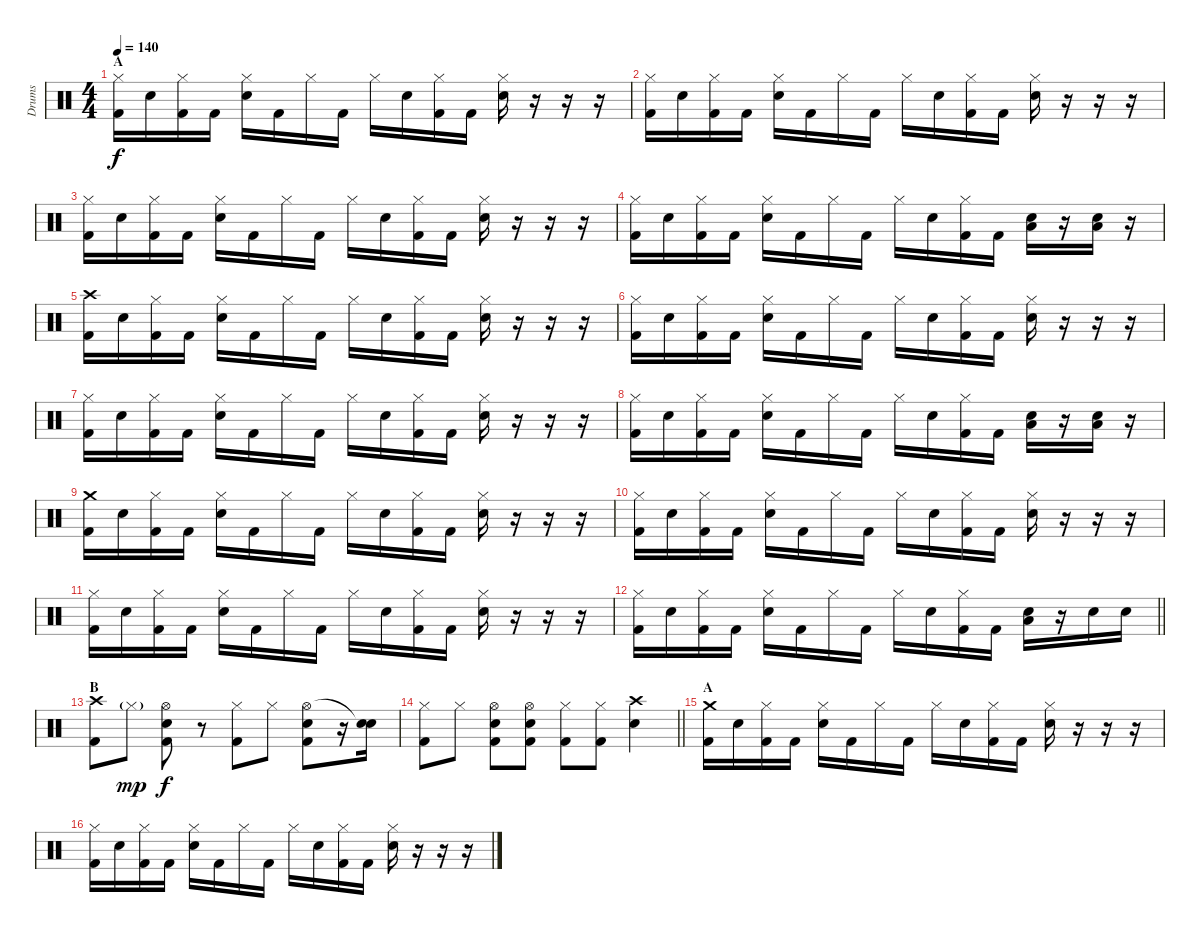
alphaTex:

\track ("Drums" "Drums") {instrument percussion}
\staff {score}
\articulation defaults
\ts (4 4)
\section ("" "A")
\tempo 140
\clef neutral
\ks c
("Hi-Hat (closed)" "Kick (hit) 2").16{dy f} "Snare (hit) 2".16 ("Hi-Hat (closed)" "Kick (hit) 2").16 "Kick (hit) 2".16 ("Hi-Hat (closed)" "Snare (hit) 2").16 "Kick (hit) 2".16 "Hi-Hat (closed)".16 "Kick (hit) 2".16 "Hi-Hat (closed)".16 "Snare (hit) 2".16 ("Hi-Hat (closed)" "Kick (hit) 2").16 "Kick (hit) 2".16 ("Hi-Hat (closed)" "Snare (hit) 2").16 r.16 r.16 r.16 |
("Hi-Hat (closed)" "Kick (hit) 2").16 "Snare (hit) 2".16 ("Hi-Hat (closed)" "Kick (hit) 2").16 "Kick (hit) 2".16 ("Hi-Hat (closed)" "Snare (hit) 2").16 "Kick (hit) 2".16 "Hi-Hat (closed)".16 "Kick (hit) 2".16 "Hi-Hat (closed)".16 "Snare (hit) 2".16 ("Hi-Hat (closed)" "Kick (hit) 2").16 "Kick (hit) 2".16 ("Hi-Hat (closed)" "Snare (hit) 2").16 r.16 r.16 r.16 |
("Hi-Hat (closed)" "Kick (hit) 2").16 "Snare (hit) 2".16 ("Hi-Hat (closed)" "Kick (hit) 2").16 "Kick (hit) 2".16 ("Hi-Hat (closed)" "Snare (hit) 2").16 "Kick (hit) 2".16 "Hi-Hat (closed)".16 "Kick (hit) 2".16 "Hi-Hat (closed)".16 "Snare (hit) 2".16 ("Hi-Hat (closed)" "Kick (hit) 2").16 "Kick (hit) 2".16 ("Hi-Hat (closed)" "Snare (hit) 2").16 r.16 r.16 r.16 |
("Hi-Hat (closed)" "Kick (hit) 2").16 "Snare (hit) 2".16 ("Hi-Hat (closed)" "Kick (hit) 2").16 "Kick (hit) 2".16 ("Hi-Hat (closed)" "Snare (hit) 2").16 "Kick (hit) 2".16 "Hi-Hat (closed)".16 "Kick (hit) 2".16 "Hi-Hat (closed)".16 "Snare (hit) 2".16 ("Hi-Hat (closed)" "Kick (hit) 2").16 "Kick (hit) 2".16 ("Low Tom (hit)" "Snare (hit) 2").16 r.16 ("Low Tom (hit)" "Snare (hit) 2").16 r.16 |
("Crash high (hit)" "Kick (hit) 2").16 "Snare (hit) 2".16 ("Hi-Hat (closed)" "Kick (hit) 2").16 "Kick (hit) 2".16 ("Hi-Hat (closed)" "Snare (hit) 2").16 "Kick (hit) 2".16 "Hi-Hat (closed)".16 "Kick (hit) 2".16 "Hi-Hat (closed)".16 "Snare (hit) 2".16 ("Hi-Hat (closed)" "Kick (hit) 2").16 "Kick (hit) 2".16 ("Hi-Hat (closed)" "Snare (hit) 2").16 r.16 r.16 r.16 |
("Hi-Hat (closed)" "Kick (hit) 2").16 "Snare (hit) 2".16 ("Hi-Hat (closed)" "Kick (hit) 2").16 "Kick (hit) 2".16 ("Hi-Hat (closed)" "Snare (hit) 2").16 "Kick (hit) 2".16 "Hi-Hat (closed)".16 "Kick (hit) 2".16 "Hi-Hat (closed)".16 "Snare (hit) 2".16 ("Hi-Hat (closed)" "Kick (hit) 2").16 "Kick (hit) 2".16 ("Hi-Hat (closed)" "Snare (hit) 2").16 r.16 r.16 r.16 |
("Hi-Hat (closed)" "Kick (hit) 2").16 "Snare (hit) 2".16 ("Hi-Hat (closed)" "Kick (hit) 2").16 "Kick (hit) 2".16 ("Hi-Hat (closed)" "Snare (hit) 2").16 "Kick (hit) 2".16 "Hi-Hat (closed)".16 "Kick (hit) 2".16 "Hi-Hat (closed)".16 "Snare (hit) 2".16 ("Hi-Hat (closed)" "Kick (hit) 2").16 "Kick (hit) 2".16 ("Hi-Hat (closed)" "Snare (hit) 2").16 r.16 r.16 r.16 |
("Hi-Hat (closed)" "Kick (hit) 2").16 "Snare (hit) 2".16 ("Hi-Hat (closed)" "Kick (hit) 2").16 "Kick (hit) 2".16 ("Hi-Hat (closed)" "Snare (hit) 2").16 "Kick (hit) 2".16 "Hi-Hat (closed)".16 "Kick (hit) 2".16 "Hi-Hat (closed)".16 "Snare (hit) 2".16 ("Hi-Hat (closed)" "Kick (hit) 2").16 "Kick (hit) 2".16 ("Low Tom (hit)" "Snare (hit) 2").16 r.16 ("Low Tom (hit)" "Snare (hit) 2").16 r.16 |
("Crash medium (hit)" "Kick (hit) 2").16 "Snare (hit) 2".16 ("Hi-Hat (closed)" "Kick (hit) 2").16 "Kick (hit) 2".16 ("Hi-Hat (closed)" "Snare (hit) 2").16 "Kick (hit) 2".16 "Hi-Hat (closed)".16 "Kick (hit) 2".16 "Hi-Hat (closed)".16 "Snare (hit) 2".16 ("Hi-Hat (closed)" "Kick (hit) 2").16 "Kick (hit) 2".16 ("Hi-Hat (closed)" "Snare (hit) 2").16 r.16 r.16 r.16 |
("Hi-Hat (closed)" "Kick (hit) 2").16 "Snare (hit) 2".16 ("Hi-Hat (closed)" "Kick (hit) 2").16 "Kick (hit) 2".16 ("Hi-Hat (closed)" "Snare (hit) 2").16 "Kick (hit) 2".16 "Hi-Hat (closed)".16 "Kick (hit) 2".16 "Hi-Hat (closed)".16 "Snare (hit) 2".16 ("Hi-Hat (closed)" "Kick (hit) 2").16 "Kick (hit) 2".16 ("Hi-Hat (closed)" "Snare (hit) 2").16 r.16 r.16 r.16 |
("Hi-Hat (closed)" "Kick (hit) 2").16 "Snare (hit) 2".16 ("Hi-Hat (closed)" "Kick (hit) 2").16 "Kick (hit) 2".16 ("Hi-Hat (closed)" "Snare (hit) 2").16 "Kick (hit) 2".16 "Hi-Hat (closed)".16 "Kick (hit) 2".16 "Hi-Hat (closed)".16 "Snare (hit) 2".16 ("Hi-Hat (closed)" "Kick (hit) 2").16 "Kick (hit) 2".16 ("Hi-Hat (closed)" "Snare (hit) 2").16 r.16 r.16 r.16 |
\barLineRight lightlight
("Hi-Hat (closed)" "Kick (hit) 2").16 "Snare (hit) 2".16 ("Hi-Hat (closed)" "Kick (hit) 2").16 "Kick (hit) 2".16 ("Hi-Hat (closed)" "Snare (hit) 2").16 "Kick (hit) 2".16 "Hi-Hat (closed)".16 "Kick (hit) 2".16 "Hi-Hat (closed)".16 "Snare (hit) 2".16 ("Hi-Hat (closed)" "Kick (hit) 2").16 "Kick (hit) 2".16 ("Low Tom (hit)" "Snare (hit) 2").16 r.16 "Snare (hit) 2".16 "Snare (hit) 2".16 |
\section ("" "B")
("Crash high (hit)" "Kick (hit) 2").8 "Hi-Hat (closed)"{g}.8{dy mp} ("Hi-Hat (open)" "Snare (hit) 2" "Kick (hit) 2").8{dy f} r.8 ("Hi-Hat (closed)" "Kick (hit) 2").8 "Hi-Hat (closed)".8 ("Hi-Hat (open)" "Snare (hit) 2" "Kick (hit) 2").8 r.16 ("Snare (hit)"{t} "Snare (hit) 2").16 |
\barLineRight lightlight
("Hi-Hat (closed)" "Kick (hit) 2").8 "Hi-Hat (closed)".8 ("Hi-Hat (open)" "Snare (hit) 2" "Kick (hit) 2").8 ("Hi-Hat (open)" "Snare (hit) 2" "Kick (hit) 2").8 ("Hi-Hat (closed)" "Kick (hit) 2").8 ("Hi-Hat (closed)" "Kick (hit) 2").8 ("Crash high (hit)" "Snare (hit) 2").4 |
\section ("" "A")
("Crash medium (hit)" "Kick (hit) 2").16 "Snare (hit) 2".16 ("Hi-Hat (closed)" "Kick (hit) 2").16 "Kick (hit) 2".16 ("Hi-Hat (closed)" "Snare (hit) 2").16 "Kick (hit) 2".16 "Hi-Hat (closed)".16 "Kick (hit) 2".16 "Hi-Hat (closed)".16 "Snare (hit) 2".16 ("Hi-Hat (closed)" "Kick (hit) 2").16 "Kick (hit) 2".16 ("Hi-Hat (closed)" "Snare (hit) 2").16 r.16 r.16 r.16 |
("Hi-Hat (closed)" "Kick (hit) 2").16 "Snare (hit) 2".16 ("Hi-Hat (closed)" "Kick (hit) 2").16 "Kick (hit) 2".16 ("Hi-Hat (closed)" "Snare (hit) 2").16 "Kick (hit) 2".16 "Hi-Hat (closed)".16 "Kick (hit) 2".16 "Hi-Hat (closed)".16 "Snare (hit) 2".16 ("Hi-Hat (closed)" "Kick (hit) 2").16 "Kick (hit) 2".16 ("Hi-Hat (closed)" "Snare (hit) 2").16 r.16 r.16 r.16
